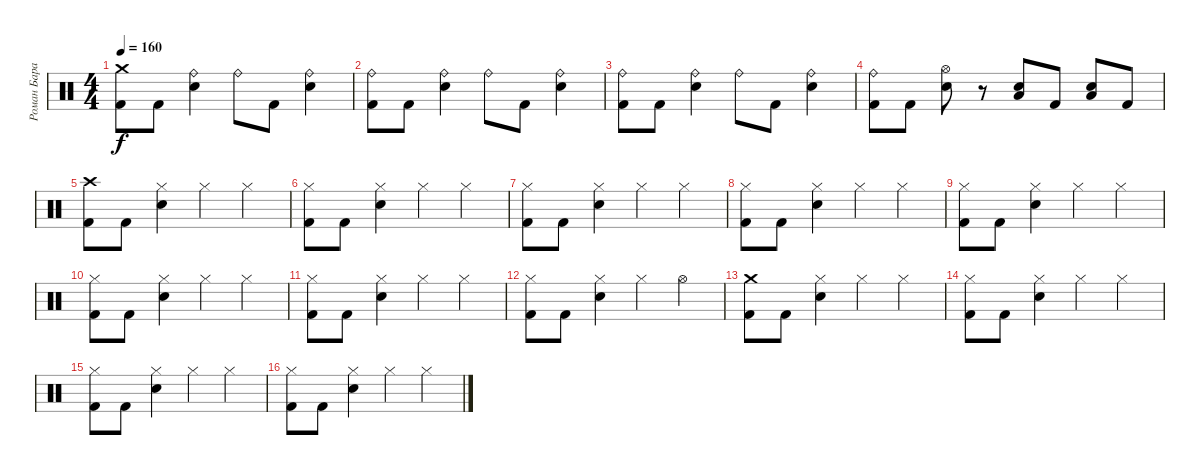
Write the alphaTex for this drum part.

\track ("Роман Баранюк" "Роман Бара") {instrument percussion}
\staff {score}
\articulation defaults
\ts (4 4)
\tempo 160
\clef neutral
\ks c
("Crash medium (hit)" "Kick (hit) 2").8{dy f} "Kick (hit) 2".8 ("Ride (bell)" "Snare (hit) 2").4 "Ride (bell)".8 "Kick (hit) 2".8 ("Ride (bell)" "Snare (hit) 2").4 |
("Ride (bell)" "Kick (hit) 2").8 "Kick (hit) 2".8 ("Ride (bell)" "Snare (hit) 2").4 "Ride (bell)".8 "Kick (hit) 2".8 ("Ride (bell)" "Snare (hit) 2").4 |
("Ride (bell)" "Kick (hit) 2").8 "Kick (hit) 2".8 ("Ride (bell)" "Snare (hit) 2").4 "Ride (bell)".8 "Kick (hit) 2".8 ("Ride (bell)" "Snare (hit) 2").4 |
("Ride (bell)" "Kick (hit) 2").8 "Kick (hit) 2".8 ("Hi-Hat (open)" "Snare (hit) 2").8 r.8 ("Snare (hit) 2" "Low Tom (hit)").8 "Kick (hit) 2".8 ("Snare (hit) 2" "Low Tom (hit)").8 "Kick (hit) 2".8 |
("Crash high (hit)" "Kick (hit) 2").8 "Kick (hit) 2".8 ("Hi-Hat (closed)" "Snare (hit) 2").4 "Hi-Hat (closed)".4 "Hi-Hat (closed)".4 |
("Hi-Hat (closed)" "Kick (hit) 2").8 "Kick (hit) 2".8 ("Hi-Hat (closed)" "Snare (hit) 2").4 "Hi-Hat (closed)".4 "Hi-Hat (closed)".4 |
("Hi-Hat (closed)" "Kick (hit) 2").8 "Kick (hit) 2".8 ("Hi-Hat (closed)" "Snare (hit) 2").4 "Hi-Hat (closed)".4 "Hi-Hat (closed)".4 |
("Hi-Hat (closed)" "Kick (hit) 2").8 "Kick (hit) 2".8 ("Hi-Hat (closed)" "Snare (hit) 2").4 "Hi-Hat (closed)".4 "Hi-Hat (closed)".4 |
("Hi-Hat (closed)" "Kick (hit) 2").8 "Kick (hit) 2".8 ("Hi-Hat (closed)" "Snare (hit) 2").4 "Hi-Hat (closed)".4 "Hi-Hat (closed)".4 |
("Hi-Hat (closed)" "Kick (hit) 2").8 "Kick (hit) 2".8 ("Hi-Hat (closed)" "Snare (hit) 2").4 "Hi-Hat (closed)".4 "Hi-Hat (closed)".4 |
("Hi-Hat (closed)" "Kick (hit) 2").8 "Kick (hit) 2".8 ("Hi-Hat (closed)" "Snare (hit) 2").4 "Hi-Hat (closed)".4 "Hi-Hat (closed)".4 |
("Hi-Hat (closed)" "Kick (hit) 2").8 "Kick (hit) 2".8 ("Hi-Hat (closed)" "Snare (hit) 2").4 "Hi-Hat (closed)".4 "Hi-Hat (open)".4 |
("Crash medium (hit)" "Kick (hit) 2").8 "Kick (hit) 2".8 ("Hi-Hat (closed)" "Snare (hit) 2").4 "Hi-Hat (closed)".4 "Hi-Hat (closed)".4 |
("Hi-Hat (closed)" "Kick (hit) 2").8 "Kick (hit) 2".8 ("Hi-Hat (closed)" "Snare (hit) 2").4 "Hi-Hat (closed)".4 "Hi-Hat (closed)".4 |
("Hi-Hat (closed)" "Kick (hit) 2").8 "Kick (hit) 2".8 ("Hi-Hat (closed)" "Snare (hit) 2").4 "Hi-Hat (closed)".4 "Hi-Hat (closed)".4 |
("Hi-Hat (closed)" "Kick (hit) 2").8 "Kick (hit) 2".8 ("Hi-Hat (closed)" "Snare (hit) 2").4 "Hi-Hat (closed)".4 "Hi-Hat (closed)".4
